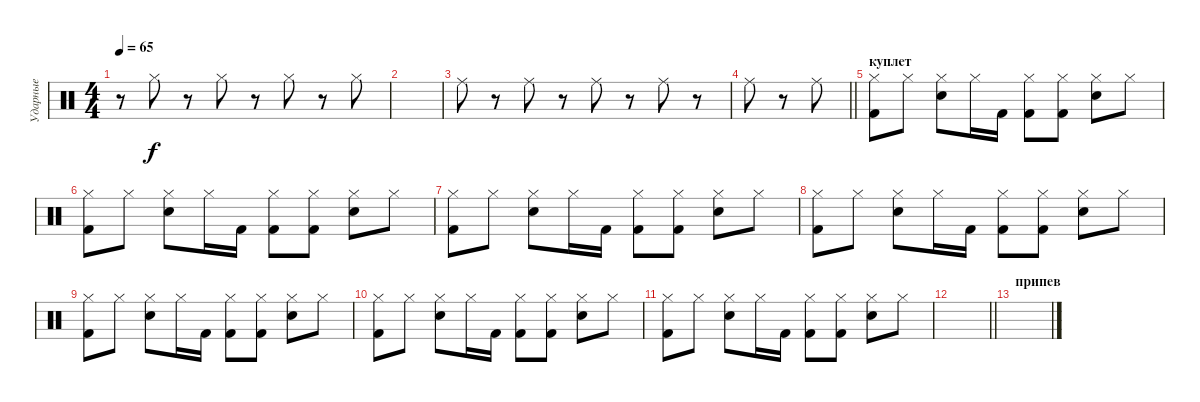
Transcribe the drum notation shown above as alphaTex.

\track ("Ударные" "Ударные") {instrument percussion}
\staff {score}
\articulation defaults
\ts (4 4)
\tempo 65
\clef neutral
\ks c
r.8{dy f} "Hi-Hat (closed)".8 r.8 "Hi-Hat (closed)".8 r.8 "Hi-Hat (closed)".8 r.8 "Hi-Hat (closed)".8 |
|
"Ride (middle)".8 r.8 "Ride (middle)".8 r.8 "Ride (middle)".8 r.8 "Ride (middle)".8 r.8 |
\barLineRight lightlight "Ride (middle)".8
r.8 "Ride (middle)".8 |
\section ("" "куплет")
("Hi-Hat (closed)" "Kick (hit) 2").8 "Hi-Hat (closed)".8 ("Hi-Hat (closed)" "Snare (hit) 2").8 "Hi-Hat (closed)".16 "Kick (hit) 2".16 ("Hi-Hat (closed)" "Kick (hit) 2").8 ("Hi-Hat (closed)" "Kick (hit) 2").8 ("Hi-Hat (closed)" "Snare (hit) 2").8 "Hi-Hat (closed)".8 |
("Hi-Hat (closed)" "Kick (hit) 2").8 "Hi-Hat (closed)".8 ("Hi-Hat (closed)" "Snare (hit) 2").8 "Hi-Hat (closed)".16 "Kick (hit) 2".16 ("Hi-Hat (closed)" "Kick (hit) 2").8 ("Hi-Hat (closed)" "Kick (hit) 2").8 ("Hi-Hat (closed)" "Snare (hit) 2").8 "Hi-Hat (closed)".8 |
("Hi-Hat (closed)" "Kick (hit) 2").8 "Hi-Hat (closed)".8 ("Hi-Hat (closed)" "Snare (hit) 2").8 "Hi-Hat (closed)".16 "Kick (hit) 2".16 ("Hi-Hat (closed)" "Kick (hit) 2").8 ("Hi-Hat (closed)" "Kick (hit) 2").8 ("Hi-Hat (closed)" "Snare (hit) 2").8 "Hi-Hat (closed)".8 |
("Hi-Hat (closed)" "Kick (hit) 2").8 "Hi-Hat (closed)".8 ("Hi-Hat (closed)" "Snare (hit) 2").8 "Hi-Hat (closed)".16 "Kick (hit) 2".16 ("Hi-Hat (closed)" "Kick (hit) 2").8 ("Hi-Hat (closed)" "Kick (hit) 2").8 ("Hi-Hat (closed)" "Snare (hit) 2").8 "Hi-Hat (closed)".8 |
("Hi-Hat (closed)" "Kick (hit) 2").8 "Hi-Hat (closed)".8 ("Hi-Hat (closed)" "Snare (hit) 2").8 "Hi-Hat (closed)".16 "Kick (hit) 2".16 ("Hi-Hat (closed)" "Kick (hit) 2").8 ("Hi-Hat (closed)" "Kick (hit) 2").8 ("Hi-Hat (closed)" "Snare (hit) 2").8 "Hi-Hat (closed)".8 |
("Hi-Hat (closed)" "Kick (hit) 2").8 "Hi-Hat (closed)".8 ("Hi-Hat (closed)" "Snare (hit) 2").8 "Hi-Hat (closed)".16 "Kick (hit) 2".16 ("Hi-Hat (closed)" "Kick (hit) 2").8 ("Hi-Hat (closed)" "Kick (hit) 2").8 ("Hi-Hat (closed)" "Snare (hit) 2").8 "Hi-Hat (closed)".8 |
("Hi-Hat (closed)" "Kick (hit) 2").8 "Hi-Hat (closed)".8 ("Hi-Hat (closed)" "Snare (hit) 2").8 "Hi-Hat (closed)".16 "Kick (hit) 2".16 ("Hi-Hat (closed)" "Kick (hit) 2").8 ("Hi-Hat (closed)" "Kick (hit) 2").8 ("Hi-Hat (closed)" "Snare (hit) 2").8 "Hi-Hat (closed)".8 |
\barLineRight lightlight
|
\section ("" "припев")
